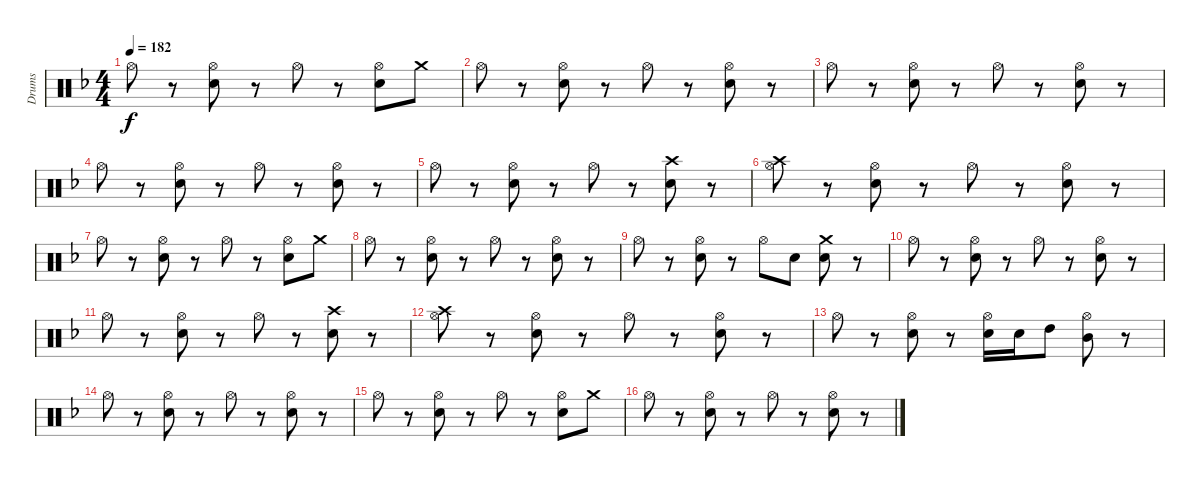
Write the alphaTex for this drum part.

\track ("Drums" "Drums") {instrument percussion}
\staff {score}
\articulation defaults
\ts (4 4)
\tempo 182
\clef neutral
\ks dminor "Hi-Hat (open)".8{dy f}
r.8 ("Hi-Hat (open)" "Snare (hit) 2").8 r.8 "Hi-Hat (open)".8 r.8 ("Hi-Hat (open)" "Snare (hit) 2").8 "Crash medium (hit)".8 |
"Hi-Hat (open)".8 r.8 ("Hi-Hat (open)" "Snare (hit) 2").8 r.8 "Hi-Hat (open)".8 r.8 ("Hi-Hat (open)" "Snare (hit) 2").8 r.8 |
"Hi-Hat (open)".8 r.8 ("Hi-Hat (open)" "Snare (hit) 2").8 r.8 "Hi-Hat (open)".8 r.8 ("Hi-Hat (open)" "Snare (hit) 2").8 r.8 |
"Hi-Hat (open)".8 r.8 ("Hi-Hat (open)" "Snare (hit) 2").8 r.8 "Hi-Hat (open)".8 r.8 ("Hi-Hat (open)" "Snare (hit) 2").8 r.8 |
"Hi-Hat (open)".8 r.8 ("Hi-Hat (open)" "Snare (hit) 2").8 r.8 "Hi-Hat (open)".8 r.8 ("Crash high (hit)" "Snare (hit) 2").8 r.8 |
("Hi-Hat (open)" "Crash high (hit)").8 r.8 ("Hi-Hat (open)" "Snare (hit) 2").8 r.8 "Hi-Hat (open)".8 r.8 ("Hi-Hat (open)" "Snare (hit) 2").8 r.8 |
"Hi-Hat (open)".8 r.8 ("Hi-Hat (open)" "Snare (hit) 2").8 r.8 "Hi-Hat (open)".8 r.8 ("Hi-Hat (open)" "Snare (hit) 2").8 "Crash medium (hit)".8 |
"Hi-Hat (open)".8 r.8 ("Hi-Hat (open)" "Snare (hit) 2").8 r.8 "Hi-Hat (open)".8 r.8 ("Hi-Hat (open)" "Snare (hit) 2").8 r.8 |
"Hi-Hat (open)".8 r.8 ("Hi-Hat (open)" "Snare (hit) 2").8 r.8 "Hi-Hat (open)".8 "Snare (hit) 2".8 ("Crash medium (hit)" "Snare (hit) 2").8 r.8 |
"Hi-Hat (open)".8 r.8 ("Hi-Hat (open)" "Snare (hit) 2").8 r.8 "Hi-Hat (open)".8 r.8 ("Hi-Hat (open)" "Snare (hit) 2").8 r.8 |
"Hi-Hat (open)".8 r.8 ("Hi-Hat (open)" "Snare (hit) 2").8 r.8 "Hi-Hat (open)".8 r.8 ("Crash high (hit)" "Snare (hit) 2").8 r.8 |
("Hi-Hat (open)" "Crash high (hit)").8 r.8 ("Hi-Hat (open)" "Snare (hit) 2").8 r.8 "Hi-Hat (open)".8 r.8 ("Hi-Hat (open)" "Snare (hit) 2").8 r.8 |
"Hi-Hat (open)".8 r.8 ("Hi-Hat (open)" "Snare (hit) 2").8 r.8 ("Hi-Hat (open)" "Snare (hit) 2").16 "Snare (hit) 2".16 "High Tom (hit)".8 ("Hi-Hat (open)" "Mid Tom (hit)").8 r.8 |
"Hi-Hat (open)".8 r.8 ("Hi-Hat (open)" "Snare (hit) 2").8 r.8 "Hi-Hat (open)".8 r.8 ("Hi-Hat (open)" "Snare (hit) 2").8 r.8 |
"Hi-Hat (open)".8 r.8 ("Hi-Hat (open)" "Snare (hit) 2").8 r.8 "Hi-Hat (open)".8 r.8 ("Hi-Hat (open)" "Snare (hit) 2").8 "Crash medium (hit)".8 |
"Hi-Hat (open)".8 r.8 ("Hi-Hat (open)" "Snare (hit) 2").8 r.8 "Hi-Hat (open)".8 r.8 ("Hi-Hat (open)" "Snare (hit) 2").8 r.8
